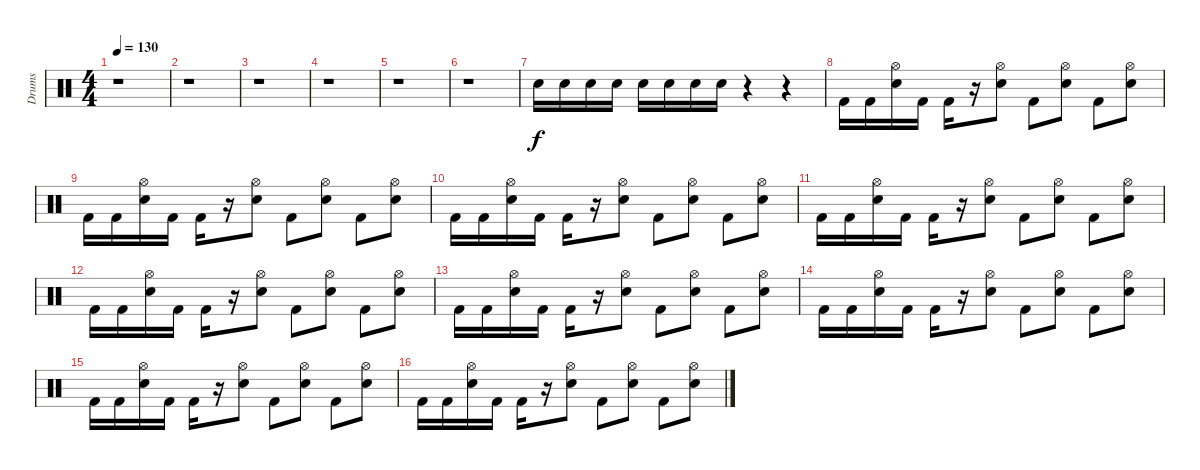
\track ("Drums" "Drums") {instrument percussion}
\staff {score}
\articulation defaults
\ts (4 4)
\tempo 130
\clef neutral
\ks c
r.1{dy f} |
r.1 |
r.1 |
r.1 |
r.1 |
r.1 |
"Snare (hit) 2".16 "Snare (hit) 2".16 "Snare (hit) 2".16 "Snare (hit) 2".16 "Snare (hit) 2".16 "Snare (hit) 2".16 "Snare (hit) 2".16 "Snare (hit) 2".16 r.4 r.4 |
"Kick (hit) 2".16 "Kick (hit) 2".16 ("Snare (hit) 2" "Hi-Hat (open)").16 "Kick (hit) 2".16 "Kick (hit) 2".16 r.16 ("Snare (hit) 2" "Hi-Hat (open)").8 "Kick (hit) 2".8 ("Snare (hit) 2" "Hi-Hat (open)").8 "Kick (hit) 2".8 ("Snare (hit) 2" "Hi-Hat (open)").8 |
"Kick (hit) 2".16 "Kick (hit) 2".16 ("Snare (hit) 2" "Hi-Hat (open)").16 "Kick (hit) 2".16 "Kick (hit) 2".16 r.16 ("Snare (hit) 2" "Hi-Hat (open)").8 "Kick (hit) 2".8 ("Snare (hit) 2" "Hi-Hat (open)").8 "Kick (hit) 2".8 ("Snare (hit) 2" "Hi-Hat (open)").8 |
"Kick (hit) 2".16 "Kick (hit) 2".16 ("Snare (hit) 2" "Hi-Hat (open)").16 "Kick (hit) 2".16 "Kick (hit) 2".16 r.16 ("Snare (hit) 2" "Hi-Hat (open)").8 "Kick (hit) 2".8 ("Snare (hit) 2" "Hi-Hat (open)").8 "Kick (hit) 2".8 ("Snare (hit) 2" "Hi-Hat (open)").8 |
"Kick (hit) 2".16 "Kick (hit) 2".16 ("Snare (hit) 2" "Hi-Hat (open)").16 "Kick (hit) 2".16 "Kick (hit) 2".16 r.16 ("Snare (hit) 2" "Hi-Hat (open)").8 "Kick (hit) 2".8 ("Snare (hit) 2" "Hi-Hat (open)").8 "Kick (hit) 2".8 ("Snare (hit) 2" "Hi-Hat (open)").8 |
"Kick (hit) 2".16 "Kick (hit) 2".16 ("Snare (hit) 2" "Hi-Hat (open)").16 "Kick (hit) 2".16 "Kick (hit) 2".16 r.16 ("Snare (hit) 2" "Hi-Hat (open)").8 "Kick (hit) 2".8 ("Snare (hit) 2" "Hi-Hat (open)").8 "Kick (hit) 2".8 ("Snare (hit) 2" "Hi-Hat (open)").8 |
"Kick (hit) 2".16 "Kick (hit) 2".16 ("Snare (hit) 2" "Hi-Hat (open)").16 "Kick (hit) 2".16 "Kick (hit) 2".16 r.16 ("Snare (hit) 2" "Hi-Hat (open)").8 "Kick (hit) 2".8 ("Snare (hit) 2" "Hi-Hat (open)").8 "Kick (hit) 2".8 ("Snare (hit) 2" "Hi-Hat (open)").8 |
"Kick (hit) 2".16 "Kick (hit) 2".16 ("Snare (hit) 2" "Hi-Hat (open)").16 "Kick (hit) 2".16 "Kick (hit) 2".16 r.16 ("Snare (hit) 2" "Hi-Hat (open)").8 "Kick (hit) 2".8 ("Snare (hit) 2" "Hi-Hat (open)").8 "Kick (hit) 2".8 ("Snare (hit) 2" "Hi-Hat (open)").8 |
"Kick (hit) 2".16 "Kick (hit) 2".16 ("Snare (hit) 2" "Hi-Hat (open)").16 "Kick (hit) 2".16 "Kick (hit) 2".16 r.16 ("Snare (hit) 2" "Hi-Hat (open)").8 "Kick (hit) 2".8 ("Snare (hit) 2" "Hi-Hat (open)").8 "Kick (hit) 2".8 ("Snare (hit) 2" "Hi-Hat (open)").8 |
"Kick (hit) 2".16 "Kick (hit) 2".16 ("Snare (hit) 2" "Hi-Hat (open)").16 "Kick (hit) 2".16 "Kick (hit) 2".16 r.16 ("Snare (hit) 2" "Hi-Hat (open)").8 "Kick (hit) 2".8 ("Snare (hit) 2" "Hi-Hat (open)").8 "Kick (hit) 2".8 ("Snare (hit) 2" "Hi-Hat (open)").8
